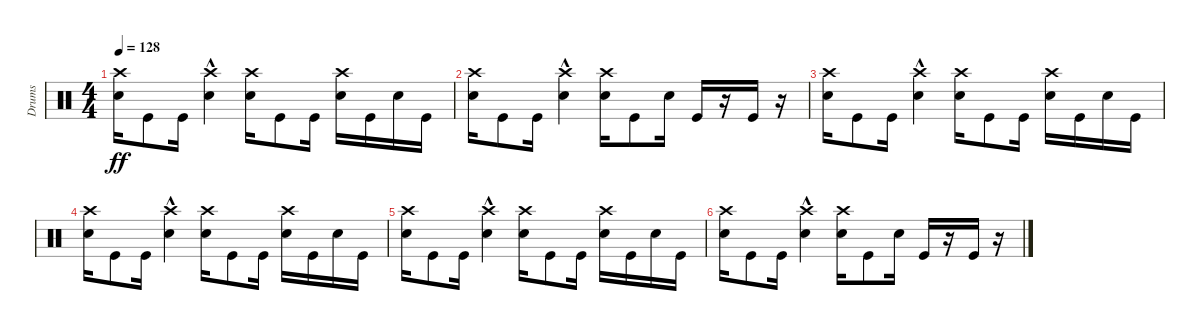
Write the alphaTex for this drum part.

\track ("Drums" "Drums") {instrument percussion}
\staff {score}
\articulation defaults
\ts (4 4)
\tempo 128
\clef neutral
\ks c
("Snare (hit) 2" "Crash high (hit)").16{dy ff} "Kick (hit)".8 "Kick (hit)".16 ("Snare (hit) 2"{hac} "Crash high (hit)"{hac}).4 ("Snare (hit) 2" "Crash high (hit)").16 "Kick (hit)".8 "Kick (hit)".16 ("Snare (hit) 2" "Crash high (hit)").16 "Kick (hit)".16 "Snare (hit) 2".16 "Kick (hit)".16 |
("Snare (hit) 2" "Crash high (hit)").16 "Kick (hit)".8 "Kick (hit)".16 ("Snare (hit) 2"{hac} "Crash high (hit)"{hac}).4 ("Snare (hit) 2" "Crash high (hit)").16 "Kick (hit)".8 "Snare (hit) 2".16 "Kick (hit)".16 r.16 "Kick (hit)".16 r.16 |
("Snare (hit) 2" "Crash high (hit)").16 "Kick (hit)".8 "Kick (hit)".16 ("Snare (hit) 2"{hac} "Crash high (hit)"{hac}).4 ("Snare (hit) 2" "Crash high (hit)").16 "Kick (hit)".8 "Kick (hit)".16 ("Snare (hit) 2" "Crash high (hit)").16 "Kick (hit)".16 "Snare (hit) 2".16 "Kick (hit)".16 |
("Snare (hit) 2" "Crash high (hit)").16 "Kick (hit)".8 "Kick (hit)".16 ("Snare (hit) 2"{hac} "Crash high (hit)"{hac}).4 ("Snare (hit) 2" "Crash high (hit)").16 "Kick (hit)".8 "Kick (hit)".16 ("Snare (hit) 2" "Crash high (hit)").16 "Kick (hit)".16 "Snare (hit) 2".16 "Kick (hit)".16 |
("Snare (hit) 2" "Crash high (hit)").16 "Kick (hit)".8 "Kick (hit)".16 ("Snare (hit) 2"{hac} "Crash high (hit)"{hac}).4 ("Snare (hit) 2" "Crash high (hit)").16 "Kick (hit)".8 "Kick (hit)".16 ("Snare (hit) 2" "Crash high (hit)").16 "Kick (hit)".16 "Snare (hit) 2".16 "Kick (hit)".16 |
("Snare (hit) 2" "Crash high (hit)").16 "Kick (hit)".8 "Kick (hit)".16 ("Snare (hit) 2"{hac} "Crash high (hit)"{hac}).4 ("Snare (hit) 2" "Crash high (hit)").16 "Kick (hit)".8 "Snare (hit) 2".16 "Kick (hit)".16 r.16 "Kick (hit)".16 r.16
